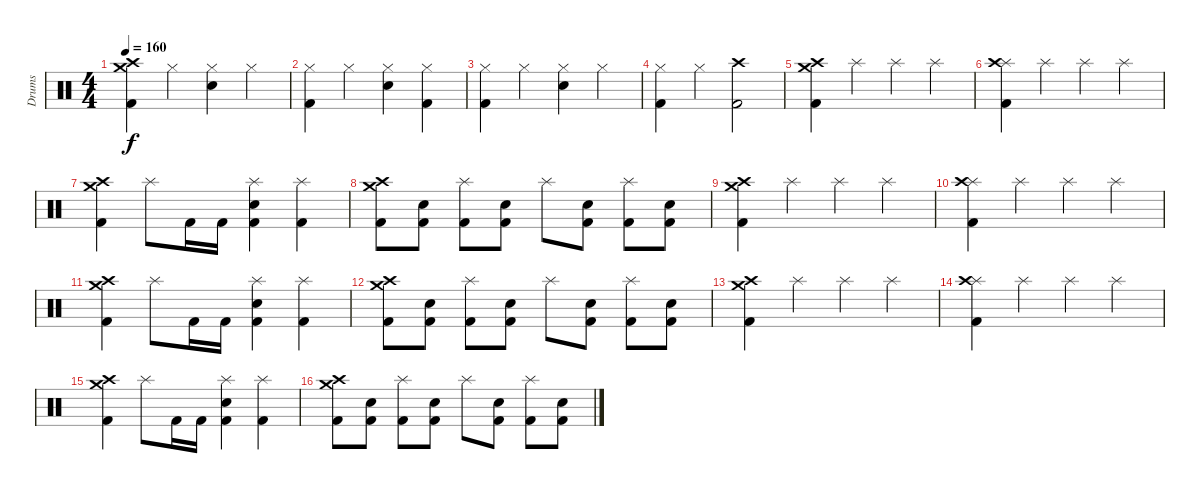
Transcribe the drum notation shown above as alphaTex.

\track ("Drums" "Drums") {instrument percussion}
\staff {score}
\articulation defaults
\ts (4 4)
\tempo 160
\clef neutral
\ks c
("Crash medium (hit)" "Crash high (hit)" "Kick (hit) 2").4{dy f} "Hi-Hat (closed)".4 ("Hi-Hat (closed)" "Snare (hit) 2").4 "Hi-Hat (closed)".4 |
("Hi-Hat (closed)" "Kick (hit) 2").4 "Hi-Hat (closed)".4 ("Hi-Hat (closed)" "Snare (hit) 2").4 ("Hi-Hat (closed)" "Kick (hit) 2").4 |
("Hi-Hat (closed)" "Kick (hit) 2").4 "Hi-Hat (closed)".4 ("Hi-Hat (closed)" "Snare (hit) 2").4 "Hi-Hat (closed)".4 |
("Hi-Hat (closed)" "Kick (hit) 2").4 "Hi-Hat (closed)".4 ("Crash high (hit)" "Kick (hit) 2").2 |
("Crash medium (hit)" "Crash high (hit)" "Kick (hit) 2").4 "Splash (hit)".4 "Splash (hit)".4 "Splash (hit)".4 |
("Splash (hit)" "Crash high (hit)" "Kick (hit) 2").4 "Splash (hit)".4 "Splash (hit)".4 "Splash (hit)".4 |
("Crash high (hit)" "Crash medium (hit)" "Kick (hit) 2").4 "Splash (hit)".8 "Kick (hit) 2".16 "Kick (hit) 2".16 ("Splash (hit)" "Snare (hit) 2" "Kick (hit) 2").4 ("Splash (hit)" "Kick (hit) 2").4 |
("Crash medium (hit)" "Crash high (hit)" "Kick (hit) 2").8 ("Snare (hit) 2" "Kick (hit) 2").8 ("Splash (hit)" "Kick (hit) 2").8 ("Snare (hit) 2" "Kick (hit) 2").8 "Splash (hit)".8 ("Snare (hit) 2" "Kick (hit) 2").8 ("Splash (hit)" "Kick (hit) 2").8 ("Snare (hit) 2" "Kick (hit) 2").8 |
("Crash medium (hit)" "Crash high (hit)" "Kick (hit) 2").4 "Splash (hit)".4 "Splash (hit)".4 "Splash (hit)".4 |
("Splash (hit)" "Crash high (hit)" "Kick (hit) 2").4 "Splash (hit)".4 "Splash (hit)".4 "Splash (hit)".4 |
("Crash high (hit)" "Crash medium (hit)" "Kick (hit) 2").4 "Splash (hit)".8 "Kick (hit) 2".16 "Kick (hit) 2".16 ("Splash (hit)" "Snare (hit) 2" "Kick (hit) 2").4 ("Splash (hit)" "Kick (hit) 2").4 |
("Crash medium (hit)" "Crash high (hit)" "Kick (hit) 2").8 ("Snare (hit) 2" "Kick (hit) 2").8 ("Splash (hit)" "Kick (hit) 2").8 ("Snare (hit) 2" "Kick (hit) 2").8 "Splash (hit)".8 ("Snare (hit) 2" "Kick (hit) 2").8 ("Splash (hit)" "Kick (hit) 2").8 ("Snare (hit) 2" "Kick (hit) 2").8 |
("Crash medium (hit)" "Crash high (hit)" "Kick (hit) 2").4 "Splash (hit)".4 "Splash (hit)".4 "Splash (hit)".4 |
("Splash (hit)" "Crash high (hit)" "Kick (hit) 2").4 "Splash (hit)".4 "Splash (hit)".4 "Splash (hit)".4 |
("Crash high (hit)" "Crash medium (hit)" "Kick (hit) 2").4 "Splash (hit)".8 "Kick (hit) 2".16 "Kick (hit) 2".16 ("Splash (hit)" "Snare (hit) 2" "Kick (hit) 2").4 ("Splash (hit)" "Kick (hit) 2").4 |
("Crash medium (hit)" "Crash high (hit)" "Kick (hit) 2").8 ("Snare (hit) 2" "Kick (hit) 2").8 ("Splash (hit)" "Kick (hit) 2").8 ("Snare (hit) 2" "Kick (hit) 2").8 "Splash (hit)".8 ("Snare (hit) 2" "Kick (hit) 2").8 ("Splash (hit)" "Kick (hit) 2").8 ("Snare (hit) 2" "Kick (hit) 2").8
